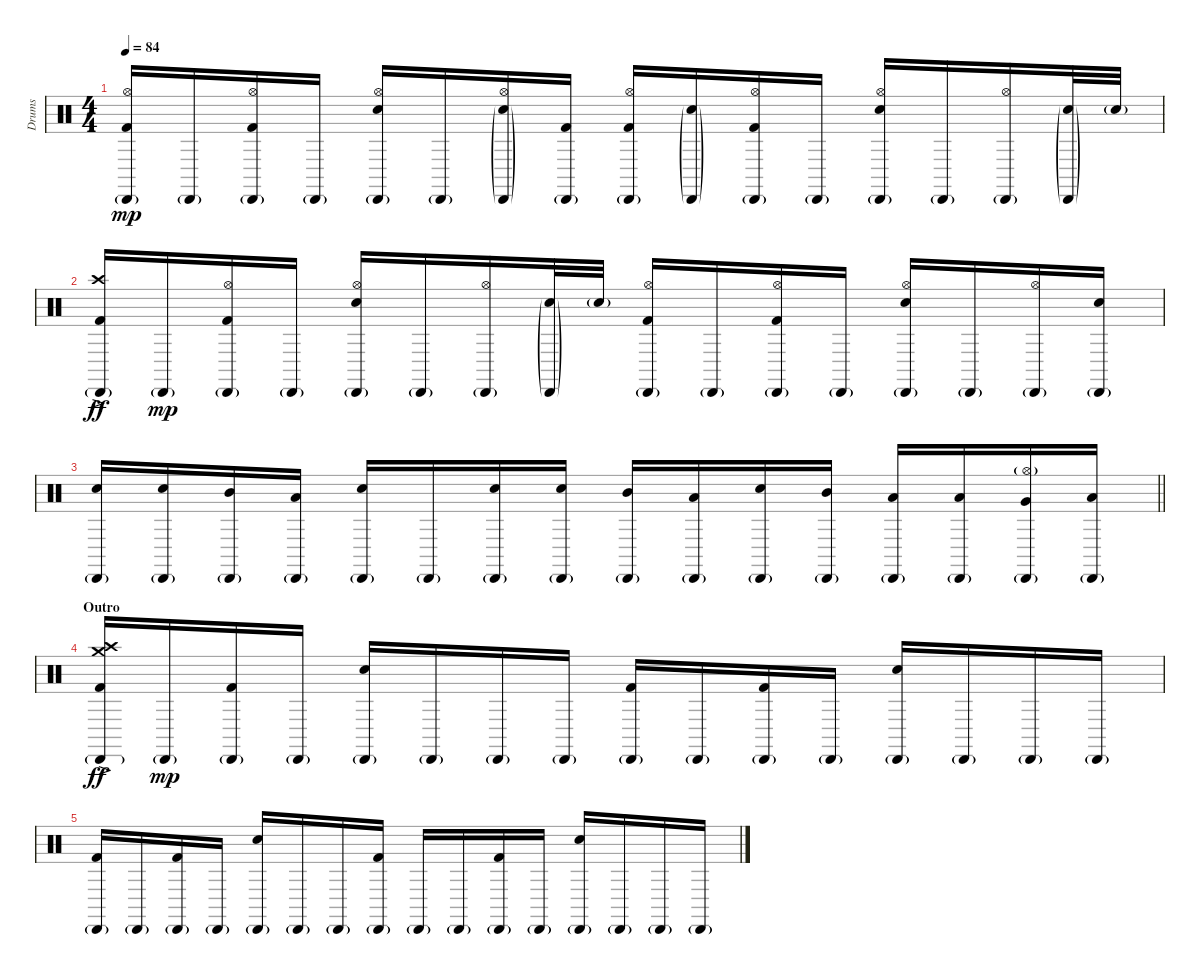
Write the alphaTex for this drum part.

\track ("Drums" "Drums") {instrument percussion}
\staff {score}
\articulation defaults
\ts (4 4)
\tempo 84
\clef neutral
\ks c
("Hi-Hat (open)" "Cabasa (hit)"{g} "Kick (hit) 2").16{dy mp} "Cabasa (hit)"{g}.16 ("Hi-Hat (open)" "Cabasa (hit)"{g} "Kick (hit) 2").16 "Cabasa (hit)"{g}.16 ("Hi-Hat (open)" "Cabasa (hit)"{g} "Electric Snare (hit)").16 "Cabasa (hit)"{g}.16 ("Hi-Hat (open)" "Cabasa (hit)"{g} "Electric Snare (hit)"{g}).16 ("Cabasa (hit)"{g} "Kick (hit) 2").16 ("Hi-Hat (open)" "Cabasa (hit)"{g} "Kick (hit) 2").16 ("Cabasa (hit)"{g} "Electric Snare (hit)"{g}).16 ("Hi-Hat (open)" "Cabasa (hit)"{g} "Kick (hit) 2").16 "Cabasa (hit)"{g}.16 ("Hi-Hat (open)" "Cabasa (hit)"{g} "Electric Snare (hit)").16 "Cabasa (hit)"{g}.16 ("Hi-Hat (open)" "Cabasa (hit)"{g}).16 ("Cabasa (hit)"{g} "Electric Snare (hit)"{g}).32 "Electric Snare (hit)"{g}.32 |
("Crash high (hit)" "Cabasa (hit)"{g} "Kick (hit) 2"{ac}).16{dy ff} "Cabasa (hit)"{g}.16{dy mp} ("Hi-Hat (open)" "Cabasa (hit)"{g} "Kick (hit) 2").16 "Cabasa (hit)"{g}.16 ("Hi-Hat (open)" "Cabasa (hit)"{g} "Electric Snare (hit)").16 "Cabasa (hit)"{g}.16 ("Hi-Hat (open)" "Cabasa (hit)"{g}).16 ("Cabasa (hit)"{g} "Electric Snare (hit)"{g}).32 "Electric Snare (hit)"{g}.32 ("Hi-Hat (open)" "Cabasa (hit)"{g} "Kick (hit) 2").16{volume 16} "Cabasa (hit)"{g}.16 ("Hi-Hat (open)" "Cabasa (hit)"{g} "Kick (hit) 2").16 "Cabasa (hit)"{g}.16 ("Hi-Hat (open)" "Cabasa (hit)"{g} "Electric Snare (hit)").16 "Cabasa (hit)"{g}.16 ("Hi-Hat (open)" "Cabasa (hit)"{g}).16 ("Cabasa (hit)"{g} "Electric Snare (hit)").16 |
\barLineRight lightlight
("Cabasa (hit)"{g} "Electric Snare (hit)").16 ("Cabasa (hit)"{g} "Electric Snare (hit)").16 ("Cabasa (hit)"{g} "Mid Tom (hit)").16 ("Cabasa (hit)"{g} "Low Tom (hit)").16 ("Cabasa (hit)"{g} "Electric Snare (hit)").16 "Cabasa (hit)"{g}.16 ("Cabasa (hit)"{g} "Electric Snare (hit)").16 ("Cabasa (hit)"{g} "Electric Snare (hit)").16 ("Cabasa (hit)"{g} "Mid Tom (hit)").16 ("Cabasa (hit)"{g} "Low Tom (hit)").16 ("Cabasa (hit)"{g} "Electric Snare (hit)").16 ("Cabasa (hit)"{g} "Mid Tom (hit)").16 ("Cabasa (hit)"{g} "Low Tom (hit)").16 ("Cabasa (hit)"{g} "Low Tom (hit)").16 ("Hi-Hat (open)"{g} "Cabasa (hit)"{g} "Very Low Tom (hit)").16 ("Cabasa (hit)"{g} "Low Floor Tom (hit)").16 |
\section ("" "Outro")
("Crash high (hit)" "Crash medium (hit)" "Cabasa (hit)"{g} "Kick (hit) 2"{ac}).16{dy ff volume 10} "Cabasa (hit)"{g}.16{dy mp} ("Cabasa (hit)"{g} "Kick (hit) 2").16 "Cabasa (hit)"{g}.16 ("Cabasa (hit)"{g} "Electric Snare (hit)").16 "Cabasa (hit)"{g}.16 "Cabasa (hit)"{g}.16 "Cabasa (hit)"{g}.16 ("Cabasa (hit)"{g} "Kick (hit) 2").16 "Cabasa (hit)"{g}.16 ("Cabasa (hit)"{g} "Kick (hit) 2").16 "Cabasa (hit)"{g}.16 ("Cabasa (hit)"{g} "Electric Snare (hit)").16 "Cabasa (hit)"{g}.16 "Cabasa (hit)"{g}.16 "Cabasa (hit)"{g}.16 |
("Cabasa (hit)"{g} "Kick (hit) 2").16 "Cabasa (hit)"{g}.16 ("Cabasa (hit)"{g} "Kick (hit) 2").16 "Cabasa (hit)"{g}.16 ("Cabasa (hit)"{g} "Electric Snare (hit)").16 "Cabasa (hit)"{g}.16 "Cabasa (hit)"{g}.16 ("Cabasa (hit)"{g} "Kick (hit) 2").16 "Cabasa (hit)"{g}.16 "Cabasa (hit)"{g}.16 ("Cabasa (hit)"{g} "Kick (hit) 2").16 "Cabasa (hit)"{g}.16 ("Cabasa (hit)"{g} "Electric Snare (hit)").16{volume 0} "Cabasa (hit)"{g}.16 "Cabasa (hit)"{g}.16 "Cabasa (hit)"{g}.16
